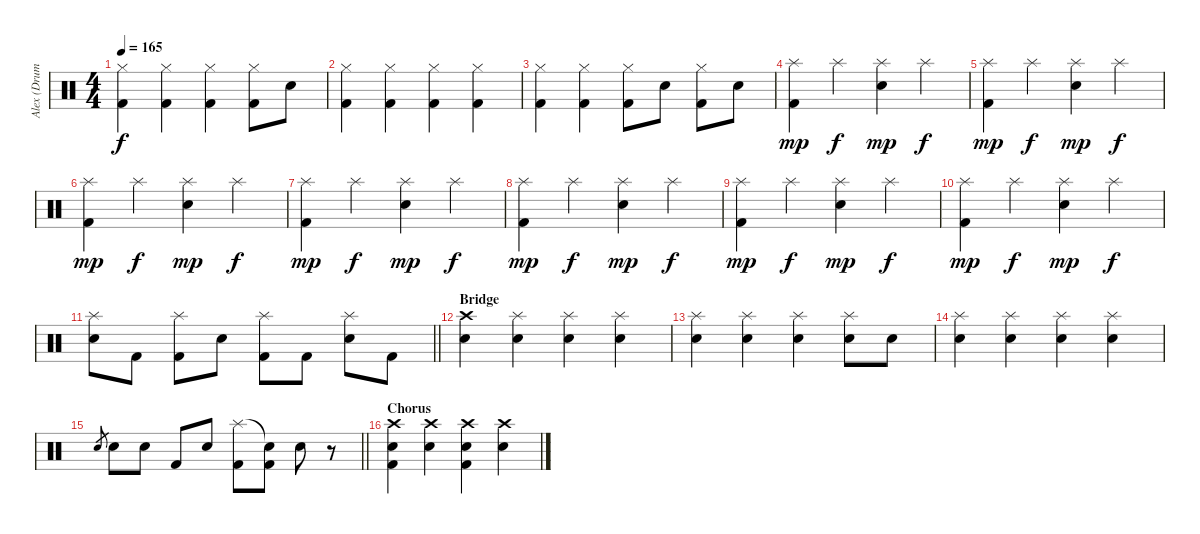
\track ("Alex (Drums)" "Alex (Drum") {instrument percussion}
\staff {score}
\articulation defaults
\ts (4 4)
\tempo 165
\clef neutral
\ks c
("Hi-Hat (closed)" "Kick (hit) 2").4{dy f} ("Hi-Hat (closed)" "Kick (hit) 2").4 ("Hi-Hat (closed)" "Kick (hit) 2").4 ("Hi-Hat (closed)" "Kick (hit) 2").8 "Snare (hit) 2".8 |
("Hi-Hat (closed)" "Kick (hit) 2").4 ("Hi-Hat (closed)" "Kick (hit) 2").4 ("Hi-Hat (closed)" "Kick (hit) 2").4 ("Hi-Hat (closed)" "Kick (hit) 2").4 |
("Hi-Hat (closed)" "Kick (hit) 2").4 ("Hi-Hat (closed)" "Kick (hit) 2").4 ("Hi-Hat (closed)" "Kick (hit) 2").8 "Snare (hit) 2".8 ("Hi-Hat (closed)" "Kick (hit) 2").8 "Snare (hit) 2".8 |
("Splash (hit)" "Kick (hit) 2").4{dy mp} "Splash (hit)".4{dy f} ("Splash (hit)" "Snare (hit) 2").4{dy mp} "Splash (hit)".4{dy f} |
("Splash (hit)" "Kick (hit) 2").4{dy mp} "Splash (hit)".4{dy f} ("Splash (hit)" "Snare (hit) 2").4{dy mp} "Splash (hit)".4{dy f} |
("Splash (hit)" "Kick (hit) 2").4{dy mp} "Splash (hit)".4{dy f} ("Splash (hit)" "Snare (hit) 2").4{dy mp} "Splash (hit)".4{dy f} |
("Splash (hit)" "Kick (hit) 2").4{dy mp} "Splash (hit)".4{dy f} ("Splash (hit)" "Snare (hit) 2").4{dy mp} "Splash (hit)".4{dy f} |
("Splash (hit)" "Kick (hit) 2").4{dy mp} "Splash (hit)".4{dy f} ("Splash (hit)" "Snare (hit) 2").4{dy mp} "Splash (hit)".4{dy f} |
("Splash (hit)" "Kick (hit) 2").4{dy mp} "Splash (hit)".4{dy f} ("Splash (hit)" "Snare (hit) 2").4{dy mp} "Splash (hit)".4{dy f} |
("Splash (hit)" "Kick (hit) 2").4{dy mp} "Splash (hit)".4{dy f} ("Splash (hit)" "Snare (hit) 2").4{dy mp} "Splash (hit)".4{dy f} |
\barLineRight lightlight
("Splash (hit)" "Snare (hit) 2").8 "Kick (hit) 2".8 ("Splash (hit)" "Kick (hit) 2").8 "Snare (hit) 2".8 ("Splash (hit)" "Kick (hit) 2").8 "Kick (hit) 2".8 ("Splash (hit)" "Snare (hit) 2").8 "Kick (hit) 2".8 |
\section ("" "Bridge")
("Crash high (hit)" "Snare (hit) 2").4 ("Splash (hit)" "Snare (hit) 2").4 ("Splash (hit)" "Snare (hit) 2").4 ("Splash (hit)" "Snare (hit) 2").4 |
("Splash (hit)" "Snare (hit) 2").4 ("Splash (hit)" "Snare (hit) 2").4 ("Splash (hit)" "Snare (hit) 2").4 ("Splash (hit)" "Snare (hit) 2").8 "Snare (hit) 2".8 |
("Splash (hit)" "Snare (hit) 2").4 ("Splash (hit)" "Snare (hit) 2").4 ("Splash (hit)" "Snare (hit) 2").4 ("Splash (hit)" "Snare (hit) 2").4 |
\barLineRight lightlight "Snare (hit) 2".8{gr} "Snare (hit) 2".8 "Snare (hit) 2".8 "Kick (hit) 2".8 "Snare (hit) 2".8
("Splash (hit)" "Kick (hit) 2").8 ("Snare (hit)"{t} "Kick (hit) 2").8 "Snare (hit) 2".8 r.8 |
\section ("" "Chorus")
("Crash high (hit)" "Snare (hit) 2" "Kick (hit) 2").4 ("Crash high (hit)" "Snare (hit) 2").4 ("Crash high (hit)" "Snare (hit) 2" "Kick (hit) 2").4 ("Crash high (hit)" "Snare (hit) 2").4
